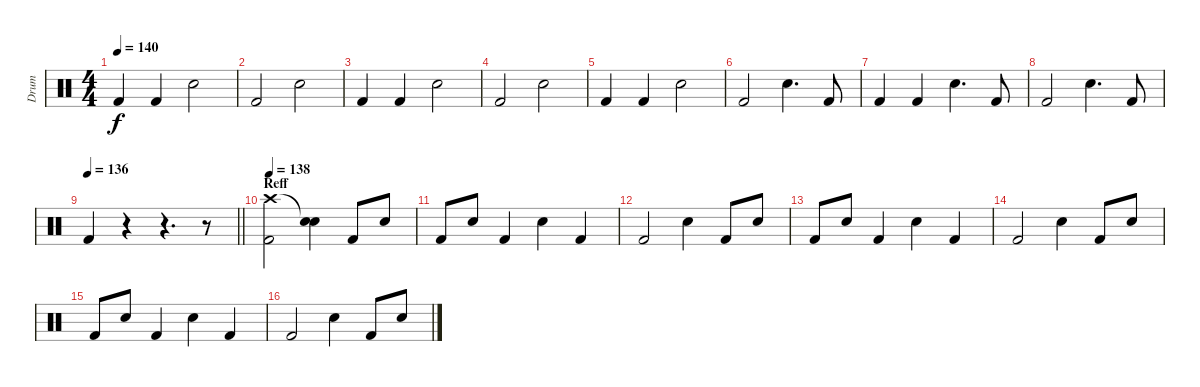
\track ("Drum" "Drum") {instrument percussion}
\staff {score}
\articulation defaults
\ts (4 4)
\tempo 140
\clef neutral
\ks c "Kick (hit) 2".4{dy f} "Kick (hit) 2".4 "Electric Snare (hit)".2
|
"Kick (hit) 2".2 "Electric Snare (hit)".2 |
"Kick (hit) 2".4 "Kick (hit) 2".4 "Electric Snare (hit)".2 |
"Kick (hit) 2".2 "Electric Snare (hit)".2 |
"Kick (hit) 2".4 "Kick (hit) 2".4 "Electric Snare (hit)".2 |
"Kick (hit) 2".2 "Electric Snare (hit)".4{d} "Kick (hit) 2".8 |
"Kick (hit) 2".4 "Kick (hit) 2".4 "Electric Snare (hit)".4{d} "Kick (hit) 2".8 |
"Kick (hit) 2".2 "Electric Snare (hit)".4{d} "Kick (hit) 2".8 |
\tempo 136
\barLineRight lightlight "Kick (hit) 2".4
r.4 r.4{d} r.8 |
\section ("" "Reff")
\tempo 138
("Crash high (hit)" "Kick (hit) 2").2 ("Snare (hit)"{t} "Electric Snare (hit)").4 "Kick (hit) 2".8 "Electric Snare (hit)".8 |
"Kick (hit) 2".8 "Electric Snare (hit)".8 "Kick (hit) 2".4 "Electric Snare (hit)".4 "Kick (hit) 2".4 |
"Kick (hit) 2".2 "Electric Snare (hit)".4 "Kick (hit) 2".8 "Electric Snare (hit)".8 |
"Kick (hit) 2".8 "Electric Snare (hit)".8 "Kick (hit) 2".4 "Electric Snare (hit)".4 "Kick (hit) 2".4 |
"Kick (hit) 2".2 "Electric Snare (hit)".4 "Kick (hit) 2".8 "Electric Snare (hit)".8 |
"Kick (hit) 2".8 "Electric Snare (hit)".8 "Kick (hit) 2".4 "Electric Snare (hit)".4 "Kick (hit) 2".4 |
"Kick (hit) 2".2 "Electric Snare (hit)".4 "Kick (hit) 2".8 "Electric Snare (hit)".8
